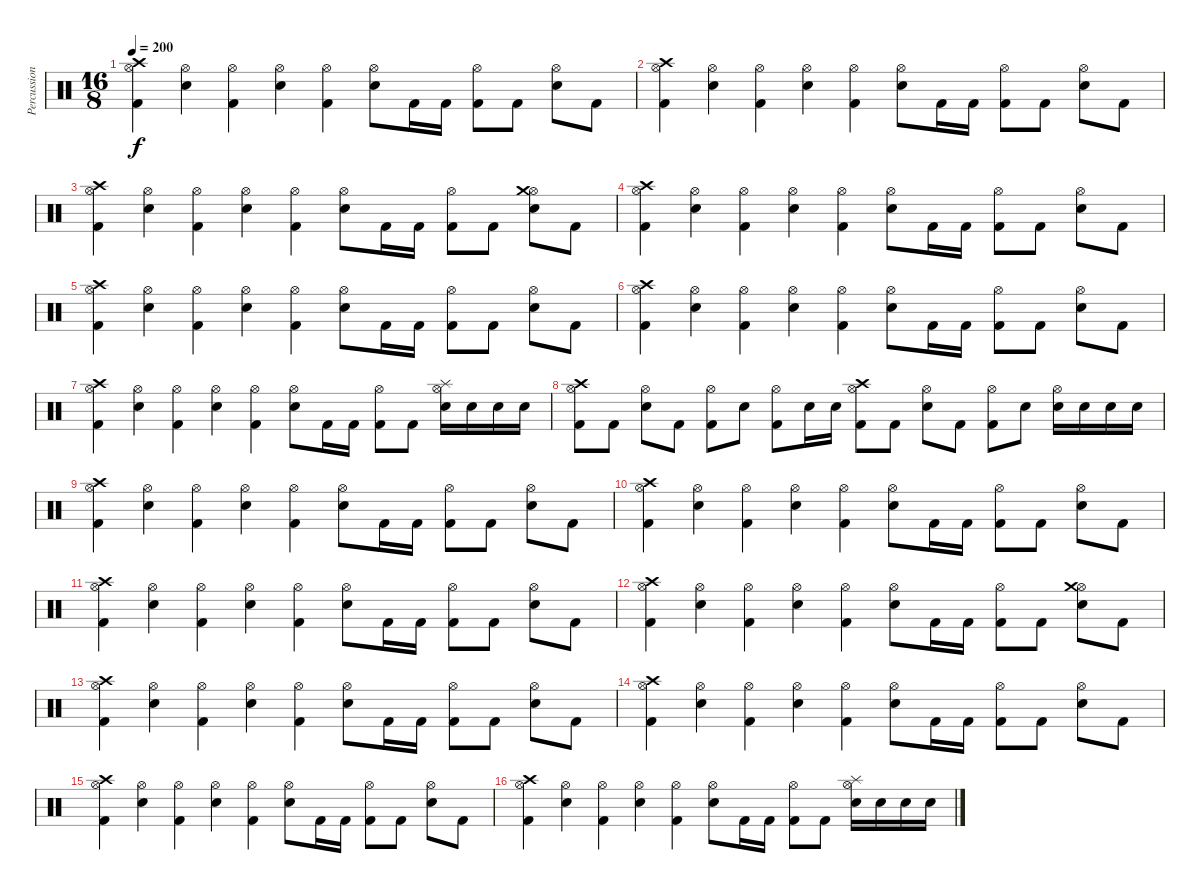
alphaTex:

\track ("Percussions" "Percussion") {instrument percussion}
\staff {score}
\articulation defaults
\ts (16 8)
\tempo 200
\clef neutral
\ks c
("Hi-Hat (open)" "Crash high (hit)" "Kick (hit) 2").4{dy f} ("Hi-Hat (open)" "Electric Snare (hit)").4 ("Hi-Hat (open)" "Kick (hit) 2").4 ("Hi-Hat (open)" "Electric Snare (hit)").4 ("Hi-Hat (open)" "Kick (hit) 2").4 ("Hi-Hat (open)" "Electric Snare (hit)").8 "Kick (hit) 2".16 "Kick (hit) 2".16 ("Hi-Hat (open)" "Kick (hit) 2").8 "Kick (hit) 2".8 ("Hi-Hat (open)" "Electric Snare (hit)").8 "Kick (hit) 2".8 |
("Hi-Hat (open)" "Crash high (hit)" "Kick (hit) 2").4 ("Hi-Hat (open)" "Electric Snare (hit)").4 ("Hi-Hat (open)" "Kick (hit) 2").4 ("Hi-Hat (open)" "Electric Snare (hit)").4 ("Hi-Hat (open)" "Kick (hit) 2").4 ("Hi-Hat (open)" "Electric Snare (hit)").8 "Kick (hit) 2".16 "Kick (hit) 2".16 ("Hi-Hat (open)" "Kick (hit) 2").8 "Kick (hit) 2".8 ("Hi-Hat (open)" "Electric Snare (hit)").8 "Kick (hit) 2".8 |
("Hi-Hat (open)" "Crash high (hit)" "Kick (hit) 2").4 ("Hi-Hat (open)" "Electric Snare (hit)").4 ("Hi-Hat (open)" "Kick (hit) 2").4 ("Hi-Hat (open)" "Electric Snare (hit)").4 ("Hi-Hat (open)" "Kick (hit) 2").4 ("Hi-Hat (open)" "Electric Snare (hit)").8 "Kick (hit) 2".16 "Kick (hit) 2".16 ("Hi-Hat (open)" "Kick (hit) 2").8 "Kick (hit) 2".8 ("Hi-Hat (open)" "Crash medium (hit)" "Electric Snare (hit)").8 "Kick (hit) 2".8 |
("Hi-Hat (open)" "Crash high (hit)" "Kick (hit) 2").4 ("Hi-Hat (open)" "Electric Snare (hit)").4 ("Hi-Hat (open)" "Kick (hit) 2").4 ("Hi-Hat (open)" "Electric Snare (hit)").4 ("Hi-Hat (open)" "Kick (hit) 2").4 ("Hi-Hat (open)" "Electric Snare (hit)").8 "Kick (hit) 2".16 "Kick (hit) 2".16 ("Hi-Hat (open)" "Kick (hit) 2").8 "Kick (hit) 2".8 ("Hi-Hat (open)" "Electric Snare (hit)").8 "Kick (hit) 2".8 |
("Hi-Hat (open)" "Crash high (hit)" "Kick (hit) 2").4 ("Hi-Hat (open)" "Electric Snare (hit)").4 ("Hi-Hat (open)" "Kick (hit) 2").4 ("Hi-Hat (open)" "Electric Snare (hit)").4 ("Hi-Hat (open)" "Kick (hit) 2").4 ("Hi-Hat (open)" "Electric Snare (hit)").8 "Kick (hit) 2".16 "Kick (hit) 2".16 ("Hi-Hat (open)" "Kick (hit) 2").8 "Kick (hit) 2".8 ("Hi-Hat (open)" "Electric Snare (hit)").8 "Kick (hit) 2".8 |
("Hi-Hat (open)" "Crash high (hit)" "Kick (hit) 2").4 ("Hi-Hat (open)" "Electric Snare (hit)").4 ("Hi-Hat (open)" "Kick (hit) 2").4 ("Hi-Hat (open)" "Electric Snare (hit)").4 ("Hi-Hat (open)" "Kick (hit) 2").4 ("Hi-Hat (open)" "Electric Snare (hit)").8 "Kick (hit) 2".16 "Kick (hit) 2".16 ("Hi-Hat (open)" "Kick (hit) 2").8 "Kick (hit) 2".8 ("Hi-Hat (open)" "Electric Snare (hit)").8 "Kick (hit) 2".8 |
("Hi-Hat (open)" "Crash high (hit)" "Kick (hit) 2").4 ("Hi-Hat (open)" "Electric Snare (hit)").4 ("Hi-Hat (open)" "Kick (hit) 2").4 ("Hi-Hat (open)" "Electric Snare (hit)").4 ("Hi-Hat (open)" "Kick (hit) 2").4 ("Hi-Hat (open)" "Electric Snare (hit)").8 "Kick (hit) 2".16 "Kick (hit) 2".16 ("Hi-Hat (open)" "Kick (hit) 2").8 "Kick (hit) 2".8 ("Hi-Hat (open)" "Splash (hit)" "Electric Snare (hit)").16 "Electric Snare (hit)".16 "Electric Snare (hit)".16 "Electric Snare (hit)".16 |
("Crash high (hit)" "Hi-Hat (open)" "Kick (hit) 2").8 "Kick (hit) 2".8 ("Hi-Hat (open)" "Electric Snare (hit)").8 "Kick (hit) 2".8 ("Hi-Hat (open)" "Kick (hit) 2").8 "Electric Snare (hit)".8 ("Hi-Hat (open)" "Kick (hit) 2").8 "Electric Snare (hit)".16 "Electric Snare (hit)".16 ("Hi-Hat (open)" "Crash high (hit)" "Kick (hit) 2").8 "Kick (hit) 2".8 ("Hi-Hat (open)" "Electric Snare (hit)").8 "Kick (hit) 2".8 ("Hi-Hat (open)" "Kick (hit) 2").8 "Electric Snare (hit)".8 ("Hi-Hat (open)" "Electric Snare (hit)").16 "Electric Snare (hit)".16 "Electric Snare (hit)".16 "Electric Snare (hit)".16 |
("Hi-Hat (open)" "Crash high (hit)" "Kick (hit) 2").4 ("Hi-Hat (open)" "Electric Snare (hit)").4 ("Hi-Hat (open)" "Kick (hit) 2").4 ("Hi-Hat (open)" "Electric Snare (hit)").4 ("Hi-Hat (open)" "Kick (hit) 2").4 ("Hi-Hat (open)" "Electric Snare (hit)").8 "Kick (hit) 2".16 "Kick (hit) 2".16 ("Hi-Hat (open)" "Kick (hit) 2").8 "Kick (hit) 2".8 ("Hi-Hat (open)" "Electric Snare (hit)").8 "Kick (hit) 2".8 |
("Hi-Hat (open)" "Crash high (hit)" "Kick (hit) 2").4 ("Hi-Hat (open)" "Electric Snare (hit)").4 ("Hi-Hat (open)" "Kick (hit) 2").4 ("Hi-Hat (open)" "Electric Snare (hit)").4 ("Hi-Hat (open)" "Kick (hit) 2").4 ("Hi-Hat (open)" "Electric Snare (hit)").8 "Kick (hit) 2".16 "Kick (hit) 2".16 ("Hi-Hat (open)" "Kick (hit) 2").8 "Kick (hit) 2".8 ("Hi-Hat (open)" "Electric Snare (hit)").8 "Kick (hit) 2".8 |
("Hi-Hat (open)" "Crash high (hit)" "Kick (hit) 2").4 ("Hi-Hat (open)" "Electric Snare (hit)").4 ("Hi-Hat (open)" "Kick (hit) 2").4 ("Hi-Hat (open)" "Electric Snare (hit)").4 ("Hi-Hat (open)" "Kick (hit) 2").4 ("Hi-Hat (open)" "Electric Snare (hit)").8 "Kick (hit) 2".16 "Kick (hit) 2".16 ("Hi-Hat (open)" "Kick (hit) 2").8 "Kick (hit) 2".8 ("Hi-Hat (open)" "Electric Snare (hit)").8 "Kick (hit) 2".8 |
("Hi-Hat (open)" "Crash high (hit)" "Kick (hit) 2").4 ("Hi-Hat (open)" "Electric Snare (hit)").4 ("Hi-Hat (open)" "Kick (hit) 2").4 ("Hi-Hat (open)" "Electric Snare (hit)").4 ("Hi-Hat (open)" "Kick (hit) 2").4 ("Hi-Hat (open)" "Electric Snare (hit)").8 "Kick (hit) 2".16 "Kick (hit) 2".16 ("Hi-Hat (open)" "Kick (hit) 2").8 "Kick (hit) 2".8 ("Hi-Hat (open)" "Crash medium (hit)" "Electric Snare (hit)").8 "Kick (hit) 2".8 |
("Hi-Hat (open)" "Crash high (hit)" "Kick (hit) 2").4 ("Hi-Hat (open)" "Electric Snare (hit)").4 ("Hi-Hat (open)" "Kick (hit) 2").4 ("Hi-Hat (open)" "Electric Snare (hit)").4 ("Hi-Hat (open)" "Kick (hit) 2").4 ("Hi-Hat (open)" "Electric Snare (hit)").8 "Kick (hit) 2".16 "Kick (hit) 2".16 ("Hi-Hat (open)" "Kick (hit) 2").8 "Kick (hit) 2".8 ("Hi-Hat (open)" "Electric Snare (hit)").8 "Kick (hit) 2".8 |
("Hi-Hat (open)" "Crash high (hit)" "Kick (hit) 2").4 ("Hi-Hat (open)" "Electric Snare (hit)").4 ("Hi-Hat (open)" "Kick (hit) 2").4 ("Hi-Hat (open)" "Electric Snare (hit)").4 ("Hi-Hat (open)" "Kick (hit) 2").4 ("Hi-Hat (open)" "Electric Snare (hit)").8 "Kick (hit) 2".16 "Kick (hit) 2".16 ("Hi-Hat (open)" "Kick (hit) 2").8 "Kick (hit) 2".8 ("Hi-Hat (open)" "Electric Snare (hit)").8 "Kick (hit) 2".8 |
("Hi-Hat (open)" "Crash high (hit)" "Kick (hit) 2").4 ("Hi-Hat (open)" "Electric Snare (hit)").4 ("Hi-Hat (open)" "Kick (hit) 2").4 ("Hi-Hat (open)" "Electric Snare (hit)").4 ("Hi-Hat (open)" "Kick (hit) 2").4 ("Hi-Hat (open)" "Electric Snare (hit)").8 "Kick (hit) 2".16 "Kick (hit) 2".16 ("Hi-Hat (open)" "Kick (hit) 2").8 "Kick (hit) 2".8 ("Hi-Hat (open)" "Electric Snare (hit)").8 "Kick (hit) 2".8 |
("Hi-Hat (open)" "Crash high (hit)" "Kick (hit) 2").4 ("Hi-Hat (open)" "Electric Snare (hit)").4 ("Hi-Hat (open)" "Kick (hit) 2").4 ("Hi-Hat (open)" "Electric Snare (hit)").4 ("Hi-Hat (open)" "Kick (hit) 2").4 ("Hi-Hat (open)" "Electric Snare (hit)").8 "Kick (hit) 2".16 "Kick (hit) 2".16 ("Hi-Hat (open)" "Kick (hit) 2").8 "Kick (hit) 2".8 ("Hi-Hat (open)" "Splash (hit)" "Electric Snare (hit)").16 "Electric Snare (hit)".16 "Electric Snare (hit)".16 "Electric Snare (hit)".16
